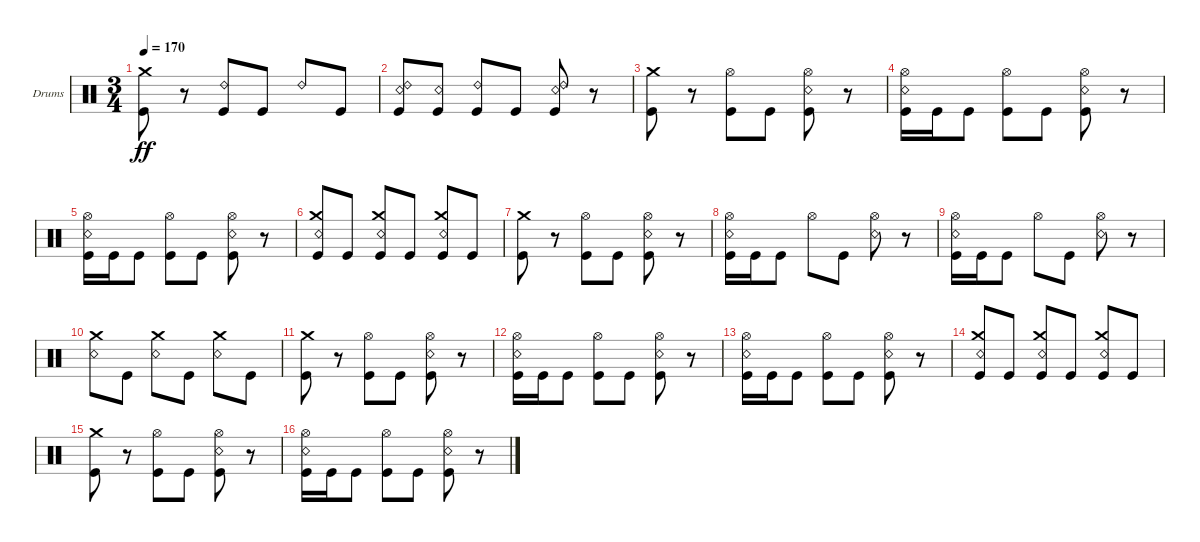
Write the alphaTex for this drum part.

\bracketExtendMode groupsimilarinstruments
\firstSystemTrackNameOrientation horizontal
\otherSystemsTrackNameOrientation horizontal
\track ("Kaleb - Drums" "Drums") {instrument percussion}
\staff {score}
\articulation defaults
\ts (3 4)
\tempo 170
\clef neutral
\ks c
("Kick (hit)" "Crash medium (hit)").8{dy ff} r.8 ("Kick (hit)" "Ride (bell) 2").8 "Kick (hit)".8 "Ride (bell) 2".8 "Kick (hit)".8 |
("Kick (hit)" "Ride (bell) 2" "Snare (rim shot)").8 ("Kick (hit)" "Snare (rim shot)").8 ("Kick (hit)" "Ride (bell) 2").8 "Kick (hit)".8 ("Kick (hit)" "Ride (bell) 2" "Snare (rim shot)").8 r.8 |
("Kick (hit)" "Crash medium (hit)").8 r.8 ("Kick (hit)" "Hi-Hat (open)").8 "Kick (hit)".8 ("Kick (hit)" "Hi-Hat (open)" "Snare (rim shot)").8 r.8 |
("Kick (hit)" "Hi-Hat (open)" "Snare (rim shot)").16 "Kick (hit)".16 "Kick (hit)".8 ("Kick (hit)" "Hi-Hat (open)").8 "Kick (hit)".8 ("Kick (hit)" "Hi-Hat (open)" "Snare (rim shot)").8 r.8 |
("Kick (hit)" "Hi-Hat (open)" "Snare (rim shot)").16 "Kick (hit)".16 "Kick (hit)".8 ("Kick (hit)" "Hi-Hat (open)").8 "Kick (hit)".8 ("Kick (hit)" "Hi-Hat (open)" "Snare (rim shot)").8 r.8 |
("Kick (hit)" "Crash medium (hit)" "Snare (rim shot)").8 "Kick (hit)".8 ("Kick (hit)" "Crash medium (hit)" "Snare (rim shot)").8 "Kick (hit)".8 ("Kick (hit)" "Crash medium (hit)" "Snare (rim shot)").8 "Kick (hit)".8 |
("Kick (hit)" "Crash medium (hit)").8 r.8 ("Kick (hit)" "Hi-Hat (open)").8 "Kick (hit)".8 ("Kick (hit)" "Hi-Hat (open)" "Snare (rim shot)").8 r.8 |
("Kick (hit)" "Hi-Hat (open)" "Snare (rim shot)").16 "Kick (hit)".16 "Kick (hit)".8 "Hi-Hat (open)".8 "Kick (hit)".8 ("Hi-Hat (open)" "Snare (rim shot)").8 r.8 |
("Kick (hit)" "Hi-Hat (open)" "Snare (rim shot)").16 "Kick (hit)".16 "Kick (hit)".8 "Hi-Hat (open)".8 "Kick (hit)".8 ("Hi-Hat (open)" "Snare (rim shot)").8 r.8 |
("Crash medium (hit)" "Snare (rim shot)").8 "Kick (hit)".8 ("Crash medium (hit)" "Snare (rim shot)").8 "Kick (hit)".8 ("Crash medium (hit)" "Snare (rim shot)").8 "Kick (hit)".8 |
("Kick (hit)" "Crash medium (hit)").8 r.8 ("Kick (hit)" "Hi-Hat (open)").8 "Kick (hit)".8 ("Kick (hit)" "Hi-Hat (open)" "Snare (rim shot)").8 r.8 |
("Kick (hit)" "Hi-Hat (open)" "Snare (rim shot)").16 "Kick (hit)".16 "Kick (hit)".8 ("Kick (hit)" "Hi-Hat (open)").8 "Kick (hit)".8 ("Kick (hit)" "Hi-Hat (open)" "Snare (rim shot)").8 r.8 |
("Kick (hit)" "Hi-Hat (open)" "Snare (rim shot)").16 "Kick (hit)".16 "Kick (hit)".8 ("Kick (hit)" "Hi-Hat (open)").8 "Kick (hit)".8 ("Kick (hit)" "Hi-Hat (open)" "Snare (rim shot)").8 r.8 |
("Kick (hit)" "Crash medium (hit)" "Snare (rim shot)").8 "Kick (hit)".8 ("Kick (hit)" "Crash medium (hit)" "Snare (rim shot)").8 "Kick (hit)".8 ("Kick (hit)" "Crash medium (hit)" "Snare (rim shot)").8 "Kick (hit)".8 |
("Kick (hit)" "Crash medium (hit)").8 r.8 ("Kick (hit)" "Hi-Hat (open)").8 "Kick (hit)".8 ("Kick (hit)" "Hi-Hat (open)" "Snare (rim shot)").8 r.8 |
("Kick (hit)" "Hi-Hat (open)" "Snare (rim shot)").16 "Kick (hit)".16 "Kick (hit)".8 ("Kick (hit)" "Hi-Hat (open)").8 "Kick (hit)".8 ("Kick (hit)" "Hi-Hat (open)" "Snare (rim shot)").8 r.8
